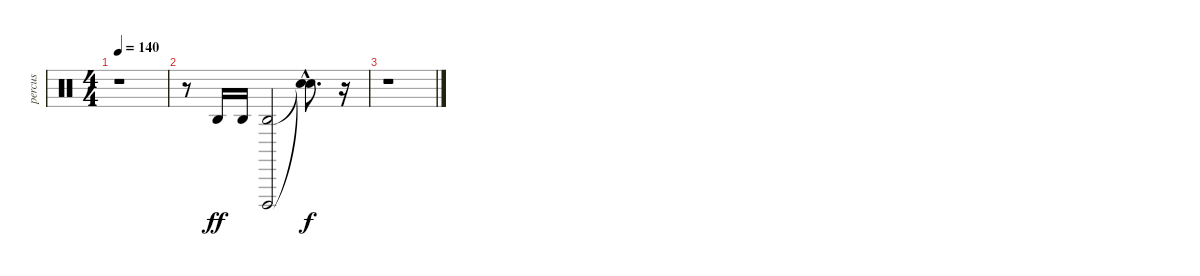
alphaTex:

\track ("percus" "percus") {instrument percussion}
\staff {score}
\articulation defaults
\ts (4 4)
\tempo 140
\clef neutral
\ks c
r.1{dy f} |
r.8 "Agogo high (hit)".16{dy ff} "Agogo high (hit)".16 ("Agogo high (hit)" "Cuica (open)").2 ("Snare (hit)"{hac t} "Snare (hit)"{hac t}).8{d dy f} r.16 |
r.1
